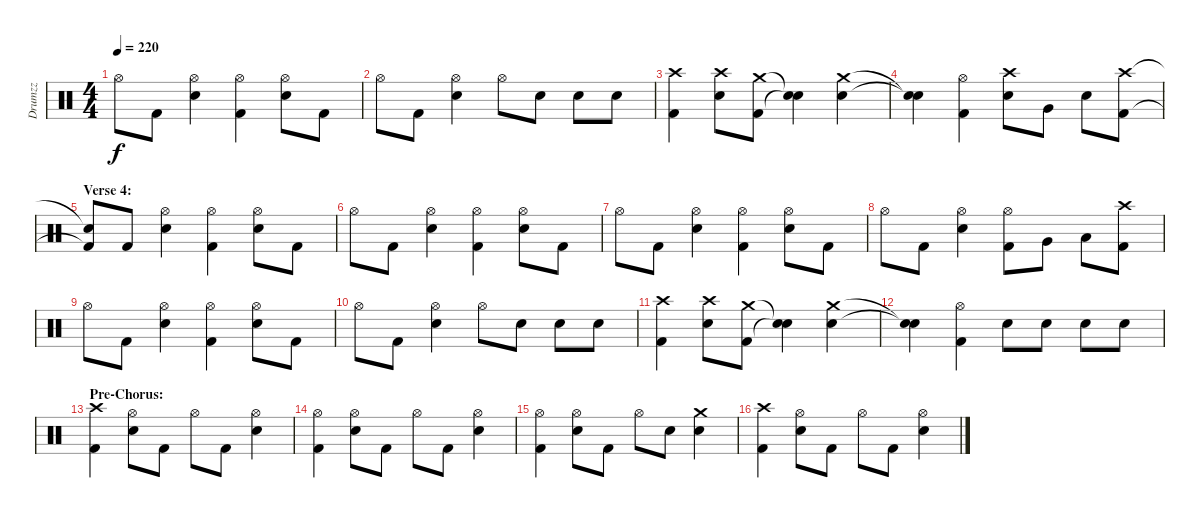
\track ("Drumzz" "Drumzz") {instrument percussion}
\staff {score}
\articulation defaults
\ts (4 4)
\tempo 220
\clef neutral
\ks c "Hi-Hat (open)".8{dy f} "Kick (hit) 2".8
("Hi-Hat (open)" "Electric Snare (hit)").4 ("Hi-Hat (open)" "Kick (hit) 2").4 ("Hi-Hat (open)" "Electric Snare (hit)").8 "Kick (hit) 2".8 |
"Hi-Hat (open)".8 "Kick (hit) 2".8 ("Hi-Hat (open)" "Electric Snare (hit)").4 "Hi-Hat (open)".8 "Electric Snare (hit)".8 "Electric Snare (hit)".8 "Electric Snare (hit)".8 |
("Crash high (hit)" "Kick (hit) 2").4 ("Crash high (hit)" "Electric Snare (hit)").8 ("Crash medium (hit)" "Kick (hit) 2").8 ("Snare (hit)"{t} "Snare (hit)"{t}).4 ("Crash medium (hit)" "Electric Snare (hit)").4 |
("Snare (hit)"{t} "Snare (hit)"{t}).4 ("Hi-Hat (open)" "Kick (hit) 2").4 ("Crash high (hit)" "Electric Snare (hit)").8 "Very Low Tom (hit)".8 "Electric Snare (hit)".8 ("Crash high (hit)" "Kick (hit) 2").8 |
\section ("" "Verse 4:")
("Snare (hit)"{t} "Kick (hit) 2"{t}).8 "Kick (hit) 2".8 ("Hi-Hat (open)" "Electric Snare (hit)").4 ("Hi-Hat (open)" "Kick (hit) 2").4 ("Hi-Hat (open)" "Electric Snare (hit)").8 "Kick (hit) 2".8 |
"Hi-Hat (open)".8 "Kick (hit) 2".8 ("Hi-Hat (open)" "Electric Snare (hit)").4 ("Hi-Hat (open)" "Kick (hit) 2").4 ("Hi-Hat (open)" "Electric Snare (hit)").8 "Kick (hit) 2".8 |
"Hi-Hat (open)".8 "Kick (hit) 2".8 ("Hi-Hat (open)" "Electric Snare (hit)").4 ("Hi-Hat (open)" "Kick (hit) 2").4 ("Hi-Hat (open)" "Electric Snare (hit)").8 "Kick (hit) 2".8 |
"Hi-Hat (open)".8 "Kick (hit) 2".8 ("Hi-Hat (open)" "Electric Snare (hit)").4 ("Hi-Hat (open)" "Kick (hit) 2").8 "Very Low Tom (hit)".8 "Low Floor Tom (hit)".8 ("Crash high (hit)" "Kick (hit) 2").8 |
"Hi-Hat (open)".8 "Kick (hit) 2".8 ("Hi-Hat (open)" "Electric Snare (hit)").4 ("Hi-Hat (open)" "Kick (hit) 2").4 ("Hi-Hat (open)" "Electric Snare (hit)").8 "Kick (hit) 2".8 |
"Hi-Hat (open)".8 "Kick (hit) 2".8 ("Hi-Hat (open)" "Electric Snare (hit)").4 "Hi-Hat (open)".8 "Electric Snare (hit)".8 "Electric Snare (hit)".8 "Electric Snare (hit)".8 |
("Crash high (hit)" "Kick (hit) 2").4 ("Crash high (hit)" "Electric Snare (hit)").8 ("Crash medium (hit)" "Kick (hit) 2").8 ("Snare (hit)"{t} "Snare (hit)"{t}).4 ("Crash medium (hit)" "Electric Snare (hit)").4 |
("Snare (hit)"{t} "Snare (hit)"{t}).4 ("Hi-Hat (open)" "Kick (hit) 2").4 "Electric Snare (hit)".8 "Electric Snare (hit)".8 "Electric Snare (hit)".8 "Electric Snare (hit)".8 |
\section ("" "Pre-Chorus:")
("Crash high (hit)" "Kick (hit) 2").4 ("Hi-Hat (open)" "Electric Snare (hit)").8 "Kick (hit) 2".8 "Hi-Hat (open)".8 "Kick (hit) 2".8 ("Hi-Hat (open)" "Electric Snare (hit)").4 |
("Hi-Hat (open)" "Kick (hit) 2").4 ("Hi-Hat (open)" "Electric Snare (hit)").8 "Kick (hit) 2".8 "Hi-Hat (open)".8 "Kick (hit) 2".8 ("Hi-Hat (open)" "Electric Snare (hit)").4 |
("Hi-Hat (open)" "Kick (hit) 2").4 ("Hi-Hat (open)" "Electric Snare (hit)").8 "Kick (hit) 2".8 "Hi-Hat (open)".8 "Electric Snare (hit)".8 ("Crash medium (hit)" "Electric Snare (hit)").4 |
("Crash high (hit)" "Kick (hit) 2").4 ("Hi-Hat (open)" "Electric Snare (hit)").8 "Kick (hit) 2".8 "Hi-Hat (open)".8 "Kick (hit) 2".8 ("Hi-Hat (open)" "Electric Snare (hit)").4
